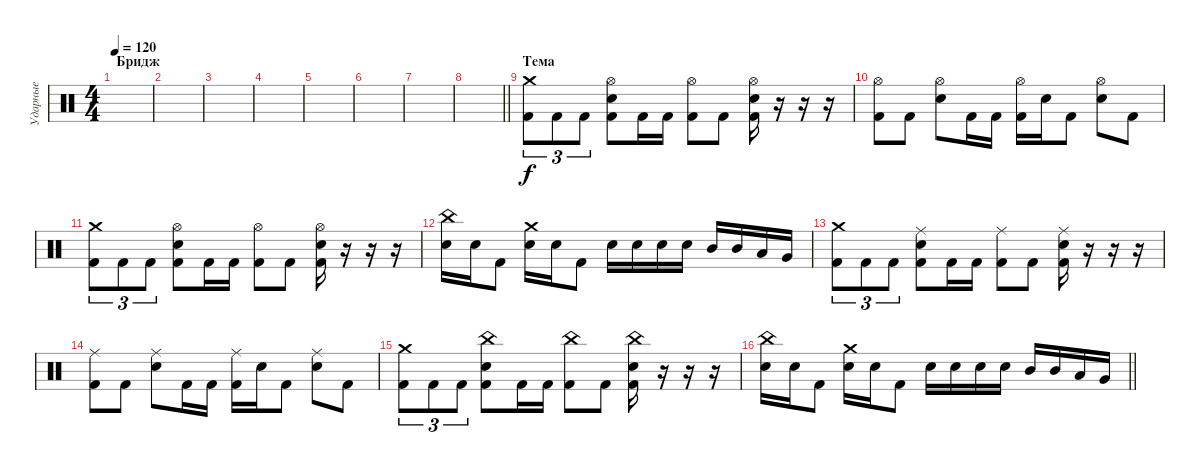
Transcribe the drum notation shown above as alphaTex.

\track ("Ударные" "Ударные") {instrument percussion}
\staff {score}
\articulation defaults
\ts (4 4)
\section ("" "Бридж")
\tempo 120
\clef neutral
\ks c
|
|
|
|
|
|
|
\barLineRight lightlight
|
\section ("" "Тема")
("Kick (hit) 2" "Crash medium (hit)").8{tu (3 2)} "Kick (hit) 2".8{tu (3 2)} "Kick (hit) 2".8{tu (3 2)} ("Kick (hit) 2" "Electric Snare (hit)" "Hi-Hat (open)").8 "Kick (hit) 2".16 "Kick (hit) 2".16 ("Kick (hit) 2" "Hi-Hat (open)").8 "Kick (hit) 2".8 ("Electric Snare (hit)" "Kick (hit) 2" "Hi-Hat (open)").16 r.16 r.16 r.16 |
("Kick (hit) 2" "Hi-Hat (open)").8 "Kick (hit) 2".8 ("Electric Snare (hit)" "Hi-Hat (open)").8 "Kick (hit) 2".16 "Kick (hit) 2".16 ("Kick (hit) 2" "Hi-Hat (open)").16 "Electric Snare (hit)".16 "Kick (hit) 2".8 ("Electric Snare (hit)" "Hi-Hat (open)").8 "Kick (hit) 2".8 |
("Kick (hit) 2" "Crash medium (hit)").8{tu (3 2)} "Kick (hit) 2".8{tu (3 2)} "Kick (hit) 2".8{tu (3 2)} ("Kick (hit) 2" "Electric Snare (hit)" "Hi-Hat (open)").8 "Kick (hit) 2".16 "Kick (hit) 2".16 ("Kick (hit) 2" "Hi-Hat (open)").8 "Kick (hit) 2".8 ("Electric Snare (hit)" "Kick (hit) 2" "Hi-Hat (open)").16 r.16 r.16 r.16 |
("Electric Snare (hit)" "China (hit)").16 "Electric Snare (hit)".16 "Kick (hit) 2".8 ("Electric Snare (hit)" "Crash medium (hit)").16 "Electric Snare (hit)".16 "Kick (hit) 2".8 "Electric Snare (hit)".16 "Electric Snare (hit)".16 "Electric Snare (hit)".16 "Electric Snare (hit)".16 "Mid Tom (hit)".16 "Mid Tom (hit)".16 "Low Tom (hit)".16 "Very Low Tom (hit)".16 |
("Kick (hit) 2" "Crash medium (hit)").8{tu (3 2)} "Kick (hit) 2".8{tu (3 2)} "Kick (hit) 2".8{tu (3 2)} ("Kick (hit) 2" "Electric Snare (hit)" "Ride (middle)").8 "Kick (hit) 2".16 "Kick (hit) 2".16 ("Kick (hit) 2" "Ride (middle)").8 "Kick (hit) 2".8 ("Electric Snare (hit)" "Kick (hit) 2" "Ride (middle)").16 r.16 r.16 r.16 |
("Kick (hit) 2" "Ride (middle)").8 "Kick (hit) 2".8 ("Electric Snare (hit)" "Ride (middle)").8 "Kick (hit) 2".16 "Kick (hit) 2".16 ("Kick (hit) 2" "Ride (middle)").16 "Electric Snare (hit)".16 "Kick (hit) 2".8 ("Electric Snare (hit)" "Ride (middle)").8 "Kick (hit) 2".8 |
("Kick (hit) 2" "Crash medium (hit)").8{tu (3 2)} "Kick (hit) 2".8{tu (3 2)} "Kick (hit) 2".8{tu (3 2)} ("Kick (hit) 2" "Electric Snare (hit)" "China (hit)").8 "Kick (hit) 2".16 "Kick (hit) 2".16 ("Kick (hit) 2" "China (hit)").8 "Kick (hit) 2".8 ("Electric Snare (hit)" "Kick (hit) 2" "China (hit)").16 r.16 r.16 r.16 |
\barLineRight lightlight
("Electric Snare (hit)" "China (hit)").16 "Electric Snare (hit)".16 "Kick (hit) 2".8 ("Electric Snare (hit)" "Crash medium (hit)").16 "Electric Snare (hit)".16 "Kick (hit) 2".8 "Electric Snare (hit)".16 "Electric Snare (hit)".16 "Electric Snare (hit)".16 "Electric Snare (hit)".16 "Mid Tom (hit)".16 "Mid Tom (hit)".16 "Low Tom (hit)".16 "Very Low Tom (hit)".16
